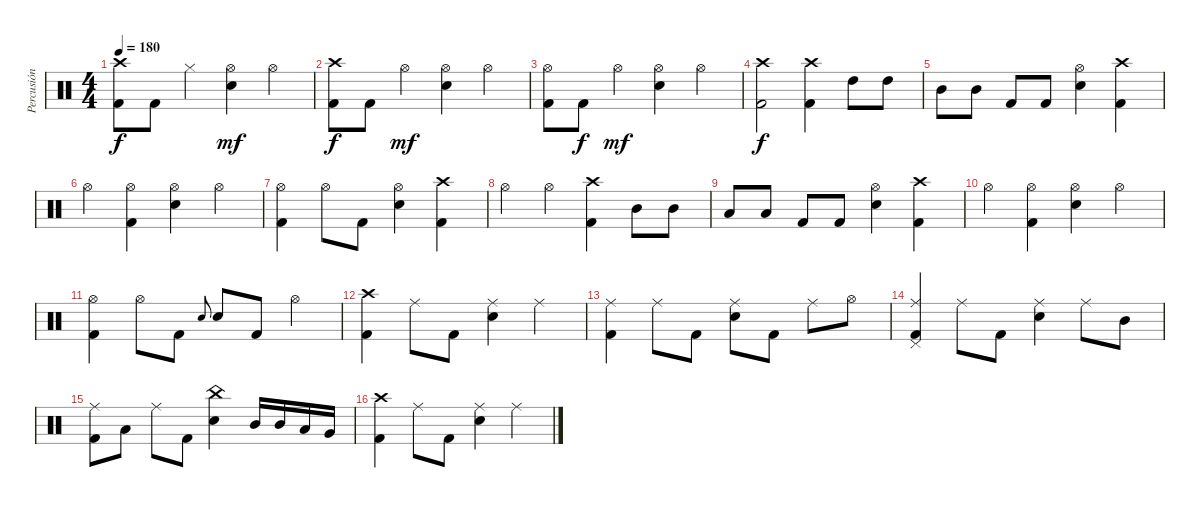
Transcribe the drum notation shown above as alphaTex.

\track ("Percusión" "Percusión") {instrument percussion}
\staff {score}
\articulation defaults
\ts (4 4)
\tempo 180
\clef neutral
\ks c
("Crash high (hit)" "Kick (hit) 2").8{dy f} "Kick (hit) 2".8 "Hi-Hat (closed)".4 ("Hi-Hat (open)" "Snare (hit) 2").4{dy mf} "Hi-Hat (open)".4 |
("Crash high (hit)" "Kick (hit) 2").8{dy f} "Kick (hit) 2".8 "Hi-Hat (open)".4{dy mf} ("Hi-Hat (open)" "Snare (hit) 2").4 "Hi-Hat (open)".4 |
("Hi-Hat (open)" "Kick (hit) 2").8 "Kick (hit) 2".8{dy f} "Hi-Hat (open)".4{dy mf} ("Hi-Hat (open)" "Snare (hit) 2").4 "Hi-Hat (open)".4 |
("Crash high (hit)" "Kick (hit) 2").2{dy f} ("Crash high (hit)" "Kick (hit) 2").4 "High Tom (hit)".8 "High Tom (hit)".8 |
"Mid Tom (hit)".8 "Mid Tom (hit)".8 "Kick (hit) 2".8 "Kick (hit) 2".8 ("Hi-Hat (open)" "Snare (hit) 2").4 ("Crash high (hit)" "Kick (hit) 2").4 |
"Hi-Hat (open)".4 ("Hi-Hat (open)" "Kick (hit) 2").4 ("Hi-Hat (open)" "Snare (hit) 2").4 "Hi-Hat (open)".4 |
("Hi-Hat (open)" "Kick (hit) 2").4 "Hi-Hat (open)".8 "Kick (hit) 2".8 ("Hi-Hat (open)" "Snare (hit) 2").4 ("Crash high (hit)" "Kick (hit) 2").4 |
"Hi-Hat (open)".4 "Hi-Hat (open)".4 ("Crash high (hit)" "Kick (hit) 2").4 "Mid Tom (hit)".8 "Mid Tom (hit)".8 |
"Low Tom (hit)".8 "Low Tom (hit)".8 "Kick (hit) 2".8 "Kick (hit) 2".8 ("Hi-Hat (open)" "Snare (hit) 2").4 ("Crash high (hit)" "Kick (hit) 2").4 |
"Hi-Hat (open)".4 ("Hi-Hat (open)" "Kick (hit) 2").4 ("Hi-Hat (open)" "Snare (hit) 2").4 "Hi-Hat (open)".4 |
("Hi-Hat (open)" "Kick (hit) 2").4 "Hi-Hat (open)".8 "Kick (hit) 2".8 "Snare (hit) 2".8{gr onbeat} "Snare (hit) 2".8 "Kick (hit) 2".8 "Hi-Hat (open)".4 |
("Crash high (hit)" "Kick (hit) 2").4 "Ride (middle)".8 "Kick (hit) 2".8 ("Ride (middle)" "Snare (hit) 2").4 "Ride (middle)".4 |
("Ride (middle)" "Kick (hit) 2").4 "Ride (middle)".8 "Kick (hit) 2".8 ("Ride (middle)" "Snare (hit) 2").8 "Kick (hit) 2".8 "Ride (middle)".8 "Hi-Hat (open)".8 |
("Pedal Hi-Hat (hit)" "Ride (middle)" "Kick (hit) 2").4 "Ride (middle)".8 "Kick (hit) 2".8 ("Ride (middle)" "Snare (hit) 2").4 "Ride (middle)".8 "Mid Tom (hit)".8 |
("Ride (middle)" "Kick (hit) 2").8 "Low Tom (hit)".8 "Ride (middle)".8 "Kick (hit) 2".8 ("China (hit)" "Snare (hit) 2").4 "Mid Tom (hit)".16 "Mid Tom (hit)".16 "Low Tom (hit)".16 "Very Low Tom (hit)".16 |
("Crash high (hit)" "Kick (hit) 2").4 "Ride (middle)".8 "Kick (hit) 2".8 ("Ride (middle)" "Snare (hit) 2").4 "Ride (middle)".4
